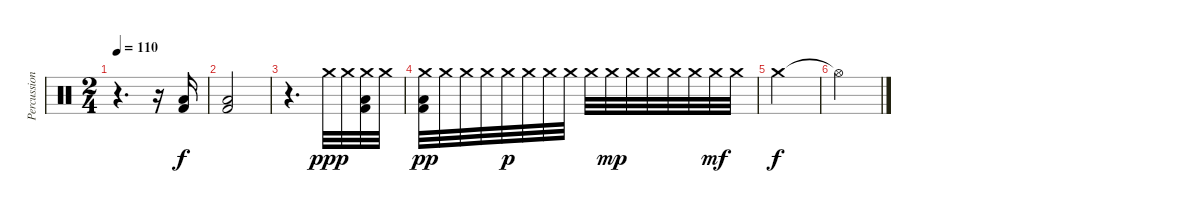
\track ("Percussioni" "Percussion") {instrument percussion}
\staff {score}
\articulation defaults
\ts (2 4)
\tempo 110
\clef neutral
\ks c
r.4{d dy f} r.16 ("Low Floor Tom (hit)" "Kick (hit) 2").16 |
("Low Floor Tom (hit)" "Kick (hit) 2").2 |
r.4{d} "Crash medium (hit)".32{dy ppp} "Crash medium (hit)".32 ("Crash medium (hit)" "Low Floor Tom (hit)" "Kick (hit) 2").32 "Crash medium (hit)".32 |
("Crash medium (hit)" "Low Floor Tom (hit)" "Kick (hit) 2").32{dy pp} "Crash medium (hit)".32 "Crash medium (hit)".32 "Crash medium (hit)".32 "Crash medium (hit)".32{dy p} "Crash medium (hit)".32 "Crash medium (hit)".32 "Crash medium (hit)".32 "Crash medium (hit)".32 "Crash medium (hit)".32{dy mp} "Crash medium (hit)".32 "Crash medium (hit)".32 "Crash medium (hit)".32 "Crash medium (hit)".32 "Crash medium (hit)".32{dy mf} "Crash medium (hit)".32 |
"Crash medium (hit)".2{dy f} |
"Hi-Hat (open)"{t}.2
